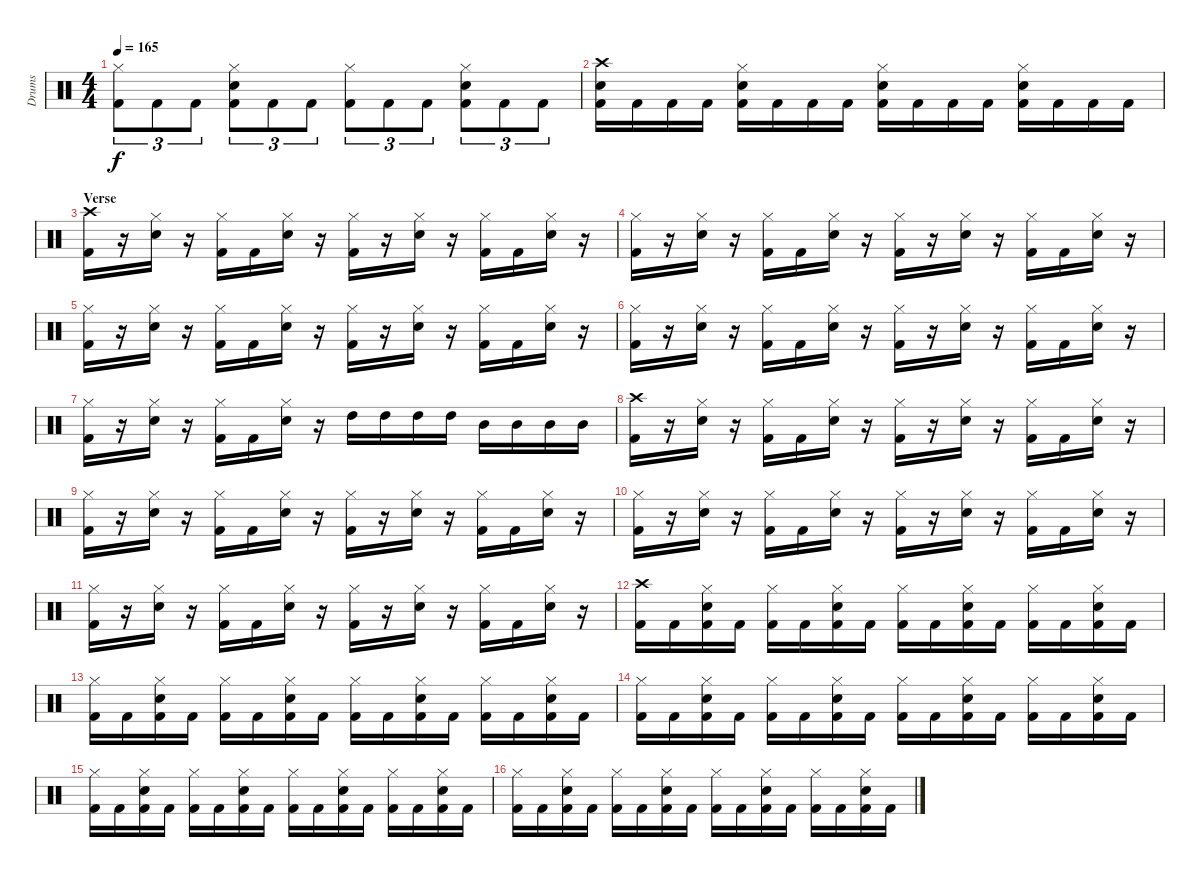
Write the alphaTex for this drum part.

\track ("Drums" "Drums") {instrument percussion}
\staff {score}
\articulation defaults
\ts (4 4)
\tempo 165
\clef neutral
\ks c
("Hi-Hat (closed)" "Kick (hit) 2").8{tu (3 2) dy f} "Kick (hit) 2".8{tu (3 2)} "Kick (hit) 2".8{tu (3 2)} ("Hi-Hat (closed)" "Electric Snare (hit)" "Kick (hit) 2").8{tu (3 2)} "Kick (hit) 2".8{tu (3 2)} "Kick (hit) 2".8{tu (3 2)} ("Hi-Hat (closed)" "Kick (hit) 2").8{tu (3 2)} "Kick (hit) 2".8{tu (3 2)} "Kick (hit) 2".8{tu (3 2)} ("Hi-Hat (closed)" "Electric Snare (hit)" "Kick (hit) 2").8{tu (3 2)} "Kick (hit) 2".8{tu (3 2)} "Kick (hit) 2".8{tu (3 2)} |
("Crash high (hit)" "Electric Snare (hit)" "Kick (hit) 2").16 "Kick (hit) 2".16 "Kick (hit) 2".16 "Kick (hit) 2".16 ("Hi-Hat (closed)" "Electric Snare (hit)" "Kick (hit) 2").16 "Kick (hit) 2".16 "Kick (hit) 2".16 "Kick (hit) 2".16 ("Hi-Hat (closed)" "Electric Snare (hit)" "Kick (hit) 2").16 "Kick (hit) 2".16 "Kick (hit) 2".16 "Kick (hit) 2".16 ("Hi-Hat (closed)" "Electric Snare (hit)" "Kick (hit) 2").16 "Kick (hit) 2".16 "Kick (hit) 2".16 "Kick (hit) 2".16 |
\section ("" "Verse")
("Crash high (hit)" "Kick (hit) 2").16 r.16 ("Hi-Hat (closed)" "Electric Snare (hit)").16 r.16 ("Hi-Hat (closed)" "Kick (hit) 2").16 "Kick (hit) 2".16 ("Hi-Hat (closed)" "Electric Snare (hit)").16 r.16 ("Hi-Hat (closed)" "Kick (hit) 2").16 r.16 ("Hi-Hat (closed)" "Electric Snare (hit)").16 r.16 ("Hi-Hat (closed)" "Kick (hit) 2").16 "Kick (hit) 2".16 ("Hi-Hat (closed)" "Electric Snare (hit)").16 r.16 |
("Hi-Hat (closed)" "Kick (hit) 2").16 r.16 ("Hi-Hat (closed)" "Electric Snare (hit)").16 r.16 ("Hi-Hat (closed)" "Kick (hit) 2").16 "Kick (hit) 2".16 ("Hi-Hat (closed)" "Electric Snare (hit)").16 r.16 ("Hi-Hat (closed)" "Kick (hit) 2").16 r.16 ("Hi-Hat (closed)" "Electric Snare (hit)").16 r.16 ("Hi-Hat (closed)" "Kick (hit) 2").16 "Kick (hit) 2".16 ("Hi-Hat (closed)" "Electric Snare (hit)").16 r.16 |
("Hi-Hat (closed)" "Kick (hit) 2").16 r.16 ("Hi-Hat (closed)" "Electric Snare (hit)").16 r.16 ("Hi-Hat (closed)" "Kick (hit) 2").16 "Kick (hit) 2".16 ("Hi-Hat (closed)" "Electric Snare (hit)").16 r.16 ("Hi-Hat (closed)" "Kick (hit) 2").16 r.16 ("Hi-Hat (closed)" "Electric Snare (hit)").16 r.16 ("Hi-Hat (closed)" "Kick (hit) 2").16 "Kick (hit) 2".16 ("Hi-Hat (closed)" "Electric Snare (hit)").16 r.16 |
("Hi-Hat (closed)" "Kick (hit) 2").16 r.16 ("Hi-Hat (closed)" "Electric Snare (hit)").16 r.16 ("Hi-Hat (closed)" "Kick (hit) 2").16 "Kick (hit) 2".16 ("Hi-Hat (closed)" "Electric Snare (hit)").16 r.16 ("Hi-Hat (closed)" "Kick (hit) 2").16 r.16 ("Hi-Hat (closed)" "Electric Snare (hit)").16 r.16 ("Hi-Hat (closed)" "Kick (hit) 2").16 "Kick (hit) 2".16 ("Hi-Hat (closed)" "Electric Snare (hit)").16 r.16 |
("Hi-Hat (closed)" "Kick (hit) 2").16 r.16 ("Hi-Hat (closed)" "Electric Snare (hit)").16 r.16 ("Hi-Hat (closed)" "Kick (hit) 2").16 "Kick (hit) 2".16 ("Hi-Hat (closed)" "Electric Snare (hit)").16 r.16 "High Tom (hit)".16 "High Tom (hit)".16 "High Tom (hit)".16 "High Tom (hit)".16 "Mid Tom (hit)".16 "Mid Tom (hit)".16 "Mid Tom (hit)".16 "Mid Tom (hit)".16 |
("Crash high (hit)" "Kick (hit) 2").16 r.16 ("Hi-Hat (closed)" "Electric Snare (hit)").16 r.16 ("Hi-Hat (closed)" "Kick (hit) 2").16 "Kick (hit) 2".16 ("Hi-Hat (closed)" "Electric Snare (hit)").16 r.16 ("Hi-Hat (closed)" "Kick (hit) 2").16 r.16 ("Hi-Hat (closed)" "Electric Snare (hit)").16 r.16 ("Hi-Hat (closed)" "Kick (hit) 2").16 "Kick (hit) 2".16 ("Hi-Hat (closed)" "Electric Snare (hit)").16 r.16 |
("Hi-Hat (closed)" "Kick (hit) 2").16 r.16 ("Hi-Hat (closed)" "Electric Snare (hit)").16 r.16 ("Hi-Hat (closed)" "Kick (hit) 2").16 "Kick (hit) 2".16 ("Hi-Hat (closed)" "Electric Snare (hit)").16 r.16 ("Hi-Hat (closed)" "Kick (hit) 2").16 r.16 ("Hi-Hat (closed)" "Electric Snare (hit)").16 r.16 ("Hi-Hat (closed)" "Kick (hit) 2").16 "Kick (hit) 2".16 ("Hi-Hat (closed)" "Electric Snare (hit)").16 r.16 |
("Hi-Hat (closed)" "Kick (hit) 2").16 r.16 ("Hi-Hat (closed)" "Electric Snare (hit)").16 r.16 ("Hi-Hat (closed)" "Kick (hit) 2").16 "Kick (hit) 2".16 ("Hi-Hat (closed)" "Electric Snare (hit)").16 r.16 ("Hi-Hat (closed)" "Kick (hit) 2").16 r.16 ("Hi-Hat (closed)" "Electric Snare (hit)").16 r.16 ("Hi-Hat (closed)" "Kick (hit) 2").16 "Kick (hit) 2".16 ("Hi-Hat (closed)" "Electric Snare (hit)").16 r.16 |
("Hi-Hat (closed)" "Kick (hit) 2").16 r.16 ("Hi-Hat (closed)" "Electric Snare (hit)").16 r.16 ("Hi-Hat (closed)" "Kick (hit) 2").16 "Kick (hit) 2".16 ("Hi-Hat (closed)" "Electric Snare (hit)").16 r.16 ("Hi-Hat (closed)" "Kick (hit) 2").16 r.16 ("Hi-Hat (closed)" "Electric Snare (hit)").16 r.16 ("Hi-Hat (closed)" "Kick (hit) 2").16 "Kick (hit) 2".16 ("Hi-Hat (closed)" "Electric Snare (hit)").16 r.16 |
("Crash high (hit)" "Kick (hit) 2").16 "Kick (hit) 2".16 ("Hi-Hat (closed)" "Electric Snare (hit)" "Kick (hit) 2").16 "Kick (hit) 2".16 ("Hi-Hat (closed)" "Kick (hit) 2").16 "Kick (hit) 2".16 ("Hi-Hat (closed)" "Electric Snare (hit)" "Kick (hit) 2").16 "Kick (hit) 2".16 ("Hi-Hat (closed)" "Kick (hit) 2").16 "Kick (hit) 2".16 ("Hi-Hat (closed)" "Electric Snare (hit)" "Kick (hit) 2").16 "Kick (hit) 2".16 ("Hi-Hat (closed)" "Kick (hit) 2").16 "Kick (hit) 2".16 ("Hi-Hat (closed)" "Electric Snare (hit)" "Kick (hit) 2").16 "Kick (hit) 2".16 |
("Hi-Hat (closed)" "Kick (hit) 2").16 "Kick (hit) 2".16 ("Hi-Hat (closed)" "Electric Snare (hit)" "Kick (hit) 2").16 "Kick (hit) 2".16 ("Hi-Hat (closed)" "Kick (hit) 2").16 "Kick (hit) 2".16 ("Hi-Hat (closed)" "Electric Snare (hit)" "Kick (hit) 2").16 "Kick (hit) 2".16 ("Hi-Hat (closed)" "Kick (hit) 2").16 "Kick (hit) 2".16 ("Hi-Hat (closed)" "Electric Snare (hit)" "Kick (hit) 2").16 "Kick (hit) 2".16 ("Hi-Hat (closed)" "Kick (hit) 2").16 "Kick (hit) 2".16 ("Hi-Hat (closed)" "Electric Snare (hit)" "Kick (hit) 2").16 "Kick (hit) 2".16 |
("Hi-Hat (closed)" "Kick (hit) 2").16 "Kick (hit) 2".16 ("Hi-Hat (closed)" "Electric Snare (hit)" "Kick (hit) 2").16 "Kick (hit) 2".16 ("Hi-Hat (closed)" "Kick (hit) 2").16 "Kick (hit) 2".16 ("Hi-Hat (closed)" "Electric Snare (hit)" "Kick (hit) 2").16 "Kick (hit) 2".16 ("Hi-Hat (closed)" "Kick (hit) 2").16 "Kick (hit) 2".16 ("Hi-Hat (closed)" "Electric Snare (hit)" "Kick (hit) 2").16 "Kick (hit) 2".16 ("Hi-Hat (closed)" "Kick (hit) 2").16 "Kick (hit) 2".16 ("Hi-Hat (closed)" "Electric Snare (hit)" "Kick (hit) 2").16 "Kick (hit) 2".16 |
("Hi-Hat (closed)" "Kick (hit) 2").16 "Kick (hit) 2".16 ("Hi-Hat (closed)" "Electric Snare (hit)" "Kick (hit) 2").16 "Kick (hit) 2".16 ("Hi-Hat (closed)" "Kick (hit) 2").16 "Kick (hit) 2".16 ("Hi-Hat (closed)" "Electric Snare (hit)" "Kick (hit) 2").16 "Kick (hit) 2".16 ("Hi-Hat (closed)" "Kick (hit) 2").16 "Kick (hit) 2".16 ("Hi-Hat (closed)" "Electric Snare (hit)" "Kick (hit) 2").16 "Kick (hit) 2".16 ("Hi-Hat (closed)" "Kick (hit) 2").16 "Kick (hit) 2".16 ("Hi-Hat (closed)" "Electric Snare (hit)" "Kick (hit) 2").16 "Kick (hit) 2".16 |
("Hi-Hat (closed)" "Kick (hit) 2").16 "Kick (hit) 2".16 ("Hi-Hat (closed)" "Electric Snare (hit)" "Kick (hit) 2").16 "Kick (hit) 2".16 ("Hi-Hat (closed)" "Kick (hit) 2").16 "Kick (hit) 2".16 ("Hi-Hat (closed)" "Electric Snare (hit)" "Kick (hit) 2").16 "Kick (hit) 2".16 ("Hi-Hat (closed)" "Kick (hit) 2").16 "Kick (hit) 2".16 ("Hi-Hat (closed)" "Electric Snare (hit)" "Kick (hit) 2").16 "Kick (hit) 2".16 ("Hi-Hat (closed)" "Kick (hit) 2").16 "Kick (hit) 2".16 ("Hi-Hat (closed)" "Electric Snare (hit)" "Kick (hit) 2").16 "Kick (hit) 2".16
